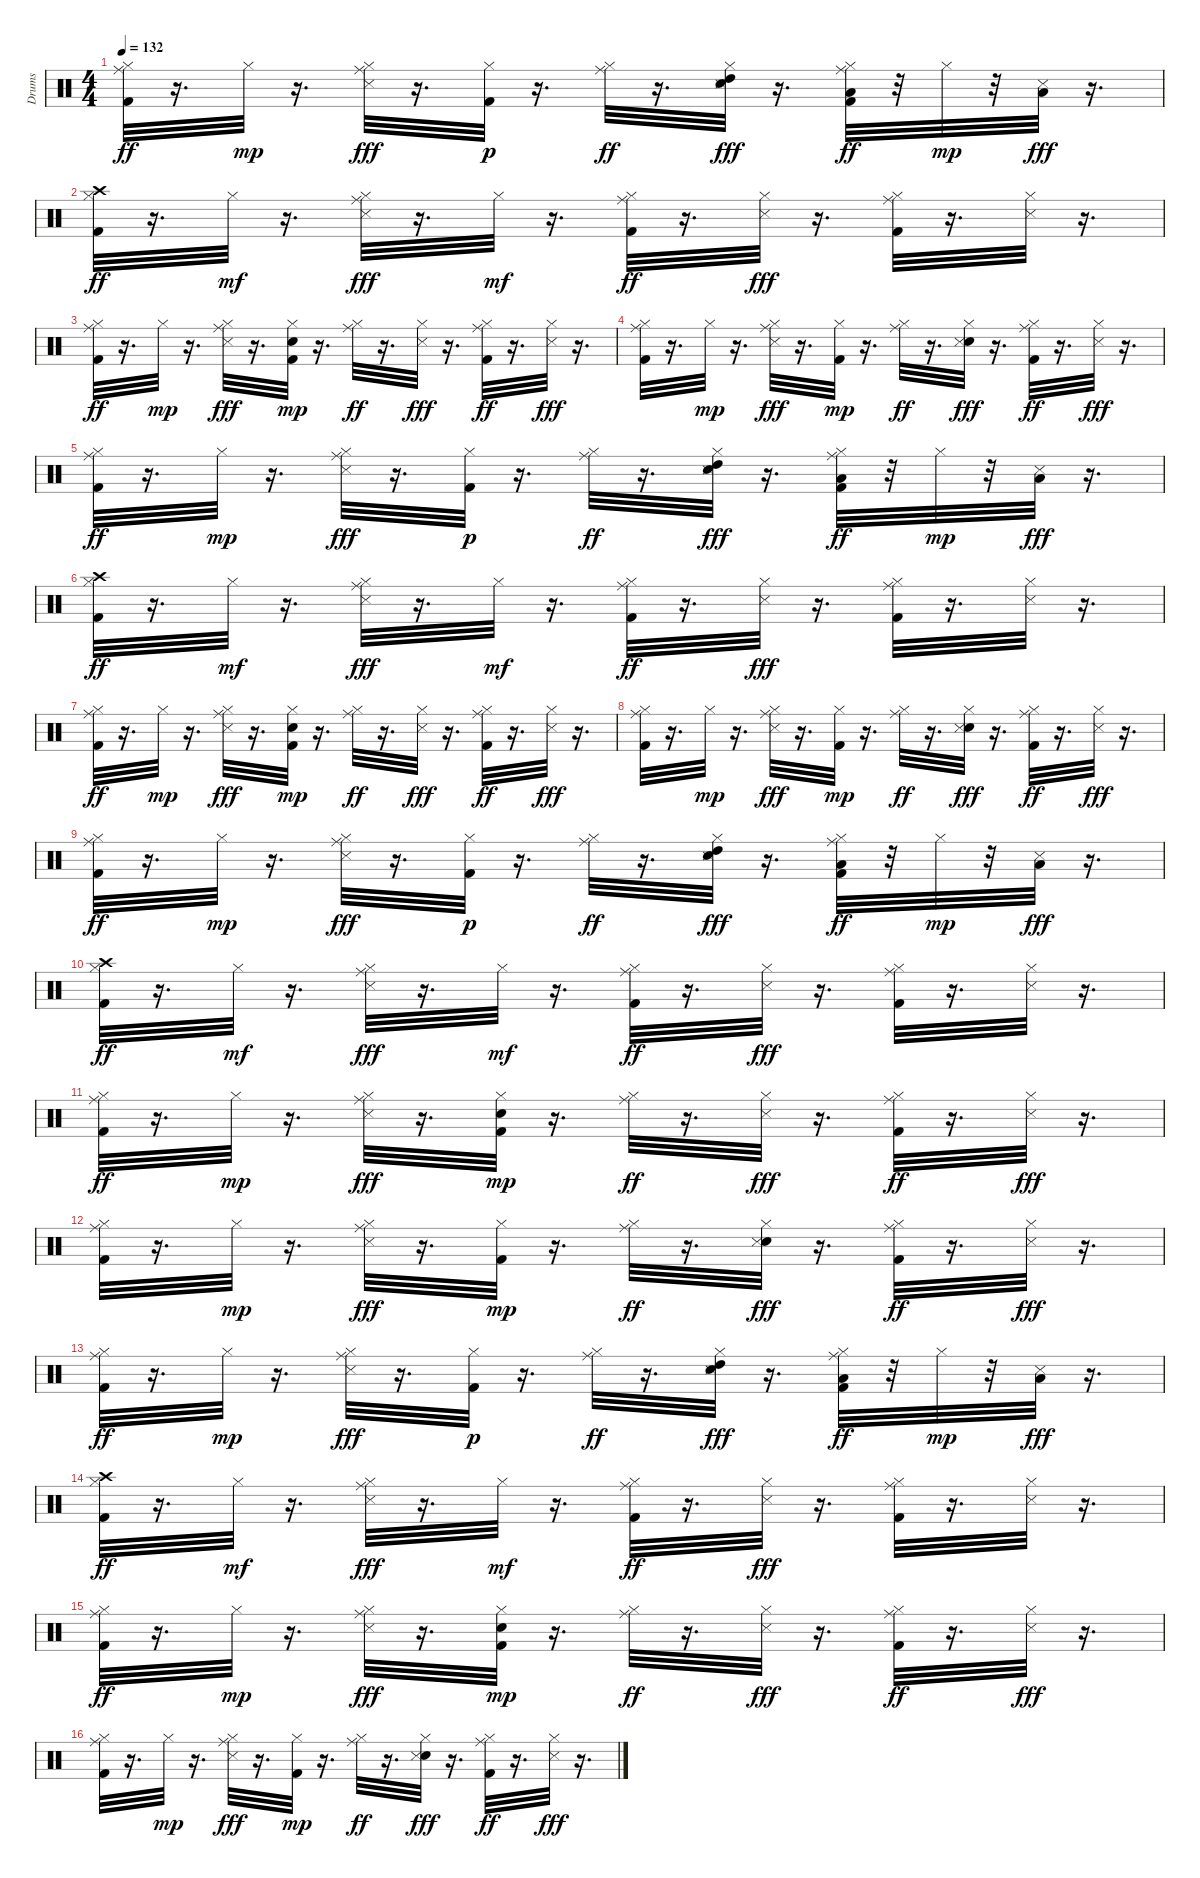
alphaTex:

\track ("Drums" "Drums") {instrument percussion}
\staff {score}
\articulation defaults
\ts (4 4)
\tempo 132
\clef neutral
\ks c
("Kick (hit) 2" "Hi-Hat (closed)" "Ride (middle)").32{dy ff} r.16{d} "Hi-Hat (closed)".32{dy mp} r.16{d} ("Hi-Hat (closed)" "Ride (middle)" "Snare (side stick) 3").32{dy fff} r.16{d} ("Kick (hit) 2" "Hi-Hat (closed)").32{dy p} r.16{d} ("Hi-Hat (closed)" "Ride (middle)").32{dy ff} r.16{d} ("Snare (hit) 2" "Hi-Hat (closed)" "High Tom (hit)" "Snare (side stick) 3").32{dy fff} r.16{d} ("Kick (hit) 2" "Hi-Hat (closed)" "Ride (middle)" "Low Tom (hit)").32{dy ff} r.32 "Hi-Hat (closed)".32{dy mp} r.32 ("Low Floor Tom (hit)" "Snare (side stick) 3").32{dy fff} r.16{d} |
("Kick (hit) 2" "Hi-Hat (closed)" "Crash high (hit)").32{dy ff} r.16{d} "Hi-Hat (closed)".32{dy mf} r.16{d} ("Hi-Hat (closed)" "Ride (middle)" "Snare (side stick) 3").32{dy fff} r.16{d} "Hi-Hat (closed)".32{dy mf} r.16{d} ("Kick (hit) 2" "Hi-Hat (closed)" "Ride (middle)").32{dy ff} r.16{d} ("Hi-Hat (closed)" "Snare (side stick) 3").32{dy fff} r.16{d} ("Kick (hit) 2" "Hi-Hat (closed)" "Ride (middle)").32 r.16{d} ("Hi-Hat (closed)" "Snare (side stick) 3").32 r.16{d} |
("Kick (hit) 2" "Hi-Hat (closed)" "Ride (middle)").32{dy ff} r.16{d} "Hi-Hat (closed)".32{dy mp} r.16{d} ("Hi-Hat (closed)" "Ride (middle)" "Snare (side stick) 3").32{dy fff} r.16{d} ("Kick (hit) 2" "Snare (hit) 2" "Hi-Hat (closed)").32{dy mp} r.16{d} ("Hi-Hat (closed)" "Ride (middle)").32{dy ff} r.16{d} ("Hi-Hat (closed)" "Snare (side stick) 3").32{dy fff} r.16{d} ("Kick (hit) 2" "Hi-Hat (closed)" "Ride (middle)").32{dy ff} r.16{d} ("Hi-Hat (closed)" "Snare (side stick) 3").32{dy fff} r.16{d} |
("Kick (hit) 2" "Hi-Hat (closed)" "Ride (middle)").32 r.16{d} "Hi-Hat (closed)".32{dy mp} r.16{d} ("Hi-Hat (closed)" "Ride (middle)" "Snare (side stick) 3").32{dy fff} r.16{d} ("Kick (hit) 2" "Hi-Hat (closed)").32{dy mp} r.16{d} ("Hi-Hat (closed)" "Ride (middle)").32{dy ff} r.16{d} ("Snare (hit) 2" "Hi-Hat (closed)" "Snare (side stick) 3").32{dy fff} r.16{d} ("Kick (hit) 2" "Hi-Hat (closed)" "Ride (middle)").32{dy ff} r.16{d} ("Hi-Hat (closed)" "Snare (side stick) 3").32{dy fff} r.16{d} |
("Kick (hit) 2" "Hi-Hat (closed)" "Ride (middle)").32{dy ff} r.16{d} "Hi-Hat (closed)".32{dy mp} r.16{d} ("Hi-Hat (closed)" "Ride (middle)" "Snare (side stick) 3").32{dy fff} r.16{d} ("Kick (hit) 2" "Hi-Hat (closed)").32{dy p} r.16{d} ("Hi-Hat (closed)" "Ride (middle)").32{dy ff} r.16{d} ("Snare (hit) 2" "Hi-Hat (closed)" "High Tom (hit)" "Snare (side stick) 3").32{dy fff} r.16{d} ("Kick (hit) 2" "Hi-Hat (closed)" "Ride (middle)" "Low Tom (hit)").32{dy ff} r.32 "Hi-Hat (closed)".32{dy mp} r.32 ("Low Floor Tom (hit)" "Snare (side stick) 3").32{dy fff} r.16{d} |
("Kick (hit) 2" "Hi-Hat (closed)" "Crash high (hit)").32{dy ff} r.16{d} "Hi-Hat (closed)".32{dy mf} r.16{d} ("Hi-Hat (closed)" "Ride (middle)" "Snare (side stick) 3").32{dy fff} r.16{d} "Hi-Hat (closed)".32{dy mf} r.16{d} ("Kick (hit) 2" "Hi-Hat (closed)" "Ride (middle)").32{dy ff} r.16{d} ("Hi-Hat (closed)" "Snare (side stick) 3").32{dy fff} r.16{d} ("Kick (hit) 2" "Hi-Hat (closed)" "Ride (middle)").32 r.16{d} ("Hi-Hat (closed)" "Snare (side stick) 3").32 r.16{d} |
("Kick (hit) 2" "Hi-Hat (closed)" "Ride (middle)").32{dy ff} r.16{d} "Hi-Hat (closed)".32{dy mp} r.16{d} ("Hi-Hat (closed)" "Ride (middle)" "Snare (side stick) 3").32{dy fff} r.16{d} ("Kick (hit) 2" "Snare (hit) 2" "Hi-Hat (closed)").32{dy mp} r.16{d} ("Hi-Hat (closed)" "Ride (middle)").32{dy ff} r.16{d} ("Hi-Hat (closed)" "Snare (side stick) 3").32{dy fff} r.16{d} ("Kick (hit) 2" "Hi-Hat (closed)" "Ride (middle)").32{dy ff} r.16{d} ("Hi-Hat (closed)" "Snare (side stick) 3").32{dy fff} r.16{d} |
("Kick (hit) 2" "Hi-Hat (closed)" "Ride (middle)").32 r.16{d} "Hi-Hat (closed)".32{dy mp} r.16{d} ("Hi-Hat (closed)" "Ride (middle)" "Snare (side stick) 3").32{dy fff} r.16{d} ("Kick (hit) 2" "Hi-Hat (closed)").32{dy mp} r.16{d} ("Hi-Hat (closed)" "Ride (middle)").32{dy ff} r.16{d} ("Snare (hit) 2" "Hi-Hat (closed)" "Snare (side stick) 3").32{dy fff} r.16{d} ("Kick (hit) 2" "Hi-Hat (closed)" "Ride (middle)").32{dy ff} r.16{d} ("Hi-Hat (closed)" "Snare (side stick) 3").32{dy fff} r.16{d} |
("Kick (hit) 2" "Hi-Hat (closed)" "Ride (middle)").32{dy ff} r.16{d} "Hi-Hat (closed)".32{dy mp} r.16{d} ("Hi-Hat (closed)" "Ride (middle)" "Snare (side stick) 3").32{dy fff} r.16{d} ("Kick (hit) 2" "Hi-Hat (closed)").32{dy p} r.16{d} ("Hi-Hat (closed)" "Ride (middle)").32{dy ff} r.16{d} ("Snare (hit) 2" "Hi-Hat (closed)" "High Tom (hit)" "Snare (side stick) 3").32{dy fff} r.16{d} ("Kick (hit) 2" "Hi-Hat (closed)" "Ride (middle)" "Low Tom (hit)").32{dy ff} r.32 "Hi-Hat (closed)".32{dy mp} r.32 ("Low Floor Tom (hit)" "Snare (side stick) 3").32{dy fff} r.16{d} |
("Kick (hit) 2" "Hi-Hat (closed)" "Crash high (hit)").32{dy ff} r.16{d} "Hi-Hat (closed)".32{dy mf} r.16{d} ("Hi-Hat (closed)" "Ride (middle)" "Snare (side stick) 3").32{dy fff} r.16{d} "Hi-Hat (closed)".32{dy mf} r.16{d} ("Kick (hit) 2" "Hi-Hat (closed)" "Ride (middle)").32{dy ff} r.16{d} ("Hi-Hat (closed)" "Snare (side stick) 3").32{dy fff} r.16{d} ("Kick (hit) 2" "Hi-Hat (closed)" "Ride (middle)").32 r.16{d} ("Hi-Hat (closed)" "Snare (side stick) 3").32 r.16{d} |
("Kick (hit) 2" "Hi-Hat (closed)" "Ride (middle)").32{dy ff} r.16{d} "Hi-Hat (closed)".32{dy mp} r.16{d} ("Hi-Hat (closed)" "Ride (middle)" "Snare (side stick) 3").32{dy fff} r.16{d} ("Kick (hit) 2" "Snare (hit) 2" "Hi-Hat (closed)").32{dy mp} r.16{d} ("Hi-Hat (closed)" "Ride (middle)").32{dy ff} r.16{d} ("Hi-Hat (closed)" "Snare (side stick) 3").32{dy fff} r.16{d} ("Kick (hit) 2" "Hi-Hat (closed)" "Ride (middle)").32{dy ff} r.16{d} ("Hi-Hat (closed)" "Snare (side stick) 3").32{dy fff} r.16{d} |
("Kick (hit) 2" "Hi-Hat (closed)" "Ride (middle)").32 r.16{d} "Hi-Hat (closed)".32{dy mp} r.16{d} ("Hi-Hat (closed)" "Ride (middle)" "Snare (side stick) 3").32{dy fff} r.16{d} ("Kick (hit) 2" "Hi-Hat (closed)").32{dy mp} r.16{d} ("Hi-Hat (closed)" "Ride (middle)").32{dy ff} r.16{d} ("Snare (hit) 2" "Hi-Hat (closed)" "Snare (side stick) 3").32{dy fff} r.16{d} ("Kick (hit) 2" "Hi-Hat (closed)" "Ride (middle)").32{dy ff} r.16{d} ("Hi-Hat (closed)" "Snare (side stick) 3").32{dy fff} r.16{d} |
("Kick (hit) 2" "Hi-Hat (closed)" "Ride (middle)").32{dy ff} r.16{d} "Hi-Hat (closed)".32{dy mp} r.16{d} ("Hi-Hat (closed)" "Ride (middle)" "Snare (side stick) 3").32{dy fff} r.16{d} ("Kick (hit) 2" "Hi-Hat (closed)").32{dy p} r.16{d} ("Hi-Hat (closed)" "Ride (middle)").32{dy ff} r.16{d} ("Snare (hit) 2" "Hi-Hat (closed)" "High Tom (hit)" "Snare (side stick) 3").32{dy fff} r.16{d} ("Kick (hit) 2" "Hi-Hat (closed)" "Ride (middle)" "Low Tom (hit)").32{dy ff} r.32 "Hi-Hat (closed)".32{dy mp} r.32 ("Low Floor Tom (hit)" "Snare (side stick) 3").32{dy fff} r.16{d} |
("Kick (hit) 2" "Hi-Hat (closed)" "Crash high (hit)").32{dy ff} r.16{d} "Hi-Hat (closed)".32{dy mf} r.16{d} ("Hi-Hat (closed)" "Ride (middle)" "Snare (side stick) 3").32{dy fff} r.16{d} "Hi-Hat (closed)".32{dy mf} r.16{d} ("Kick (hit) 2" "Hi-Hat (closed)" "Ride (middle)").32{dy ff} r.16{d} ("Hi-Hat (closed)" "Snare (side stick) 3").32{dy fff} r.16{d} ("Kick (hit) 2" "Hi-Hat (closed)" "Ride (middle)").32 r.16{d} ("Hi-Hat (closed)" "Snare (side stick) 3").32 r.16{d} |
("Kick (hit) 2" "Hi-Hat (closed)" "Ride (middle)").32{dy ff} r.16{d} "Hi-Hat (closed)".32{dy mp} r.16{d} ("Hi-Hat (closed)" "Ride (middle)" "Snare (side stick) 3").32{dy fff} r.16{d} ("Kick (hit) 2" "Snare (hit) 2" "Hi-Hat (closed)").32{dy mp} r.16{d} ("Hi-Hat (closed)" "Ride (middle)").32{dy ff} r.16{d} ("Hi-Hat (closed)" "Snare (side stick) 3").32{dy fff} r.16{d} ("Kick (hit) 2" "Hi-Hat (closed)" "Ride (middle)").32{dy ff} r.16{d} ("Hi-Hat (closed)" "Snare (side stick) 3").32{dy fff} r.16{d} |
("Kick (hit) 2" "Hi-Hat (closed)" "Ride (middle)").32 r.16{d} "Hi-Hat (closed)".32{dy mp} r.16{d} ("Hi-Hat (closed)" "Ride (middle)" "Snare (side stick) 3").32{dy fff} r.16{d} ("Kick (hit) 2" "Hi-Hat (closed)").32{dy mp} r.16{d} ("Hi-Hat (closed)" "Ride (middle)").32{dy ff} r.16{d} ("Snare (hit) 2" "Hi-Hat (closed)" "Snare (side stick) 3").32{dy fff} r.16{d} ("Kick (hit) 2" "Hi-Hat (closed)" "Ride (middle)").32{dy ff} r.16{d} ("Hi-Hat (closed)" "Snare (side stick) 3").32{dy fff} r.16{d}
